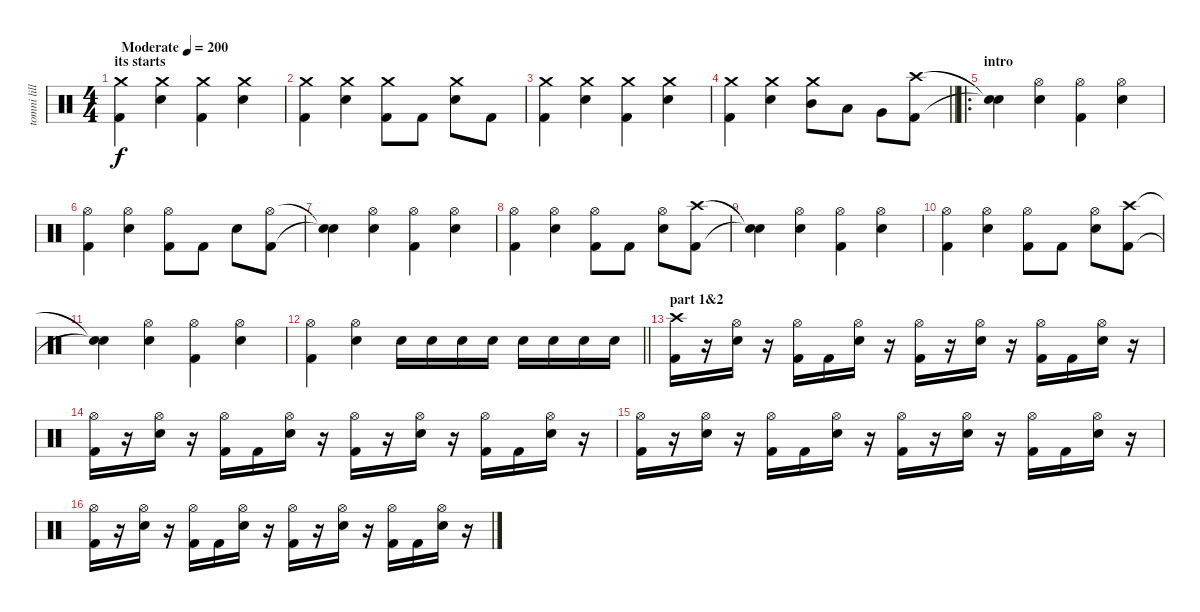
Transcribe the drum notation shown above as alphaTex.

\track ("tomni lillmann" "tomni lill") {instrument percussion}
\staff {score}
\articulation defaults
\ts (4 4)
\section ("" "its starts")
\tempo (200 "Moderate")
\clef neutral
\ks c
("Crash medium (hit)" "Kick (hit) 2").4{dy f} ("Crash medium (hit)" "Snare (hit) 2").4 ("Crash medium (hit)" "Kick (hit) 2").4 ("Crash medium (hit)" "Snare (hit) 2").4 |
("Crash medium (hit)" "Kick (hit) 2").4 ("Crash medium (hit)" "Snare (hit) 2").4 ("Crash medium (hit)" "Kick (hit) 2").8 "Kick (hit) 2".8 ("Crash medium (hit)" "Snare (hit) 2").8 "Kick (hit) 2".8 |
("Crash medium (hit)" "Kick (hit) 2").4 ("Crash medium (hit)" "Snare (hit) 2").4 ("Crash medium (hit)" "Kick (hit) 2").4 ("Crash medium (hit)" "Snare (hit) 2").4 |
\barLineRight lightlight
("Crash medium (hit)" "Kick (hit) 2").4 ("Crash medium (hit)" "Snare (hit) 2").4 ("Crash medium (hit)" "Mid Tom (hit)").8 "Low Tom (hit)".8 "Very Low Tom (hit)".8 ("Crash high (hit)" "Kick (hit) 2").8 |
\ro
\section ("" "intro")
("Snare (hit)"{t} "Snare (hit)"{t}).4 ("Hi-Hat (open)" "Snare (hit) 2").4 ("Hi-Hat (open)" "Kick (hit) 2").4 ("Hi-Hat (open)" "Snare (hit) 2").4 |
("Hi-Hat (open)" "Kick (hit) 2").4 ("Hi-Hat (open)" "Snare (hit) 2").4 ("Hi-Hat (open)" "Kick (hit) 2").8 "Kick (hit) 2".8 "Snare (hit) 2".8 ("Hi-Hat (open)" "Kick (hit) 2").8 |
("Snare (hit)"{t} "Snare (hit)"{t}).4 ("Hi-Hat (open)" "Snare (hit) 2").4 ("Hi-Hat (open)" "Kick (hit) 2").4 ("Hi-Hat (open)" "Snare (hit) 2").4 |
("Hi-Hat (open)" "Kick (hit) 2").4 ("Hi-Hat (open)" "Snare (hit) 2").4 ("Hi-Hat (open)" "Kick (hit) 2").8 "Kick (hit) 2".8 ("Hi-Hat (open)" "Snare (hit) 2").8 ("Crash high (hit)" "Kick (hit) 2").8 |
("Snare (hit)"{t} "Snare (hit)"{t}).4 ("Hi-Hat (open)" "Snare (hit) 2").4 ("Hi-Hat (open)" "Kick (hit) 2").4 ("Hi-Hat (open)" "Snare (hit) 2").4 |
("Hi-Hat (open)" "Kick (hit) 2").4 ("Hi-Hat (open)" "Snare (hit) 2").4 ("Hi-Hat (open)" "Kick (hit) 2").8 "Kick (hit) 2".8 ("Hi-Hat (open)" "Snare (hit) 2").8 ("Crash high (hit)" "Kick (hit) 2").8 |
("Snare (hit)"{t} "Snare (hit)"{t}).4 ("Hi-Hat (open)" "Snare (hit) 2").4 ("Hi-Hat (open)" "Kick (hit) 2").4 ("Hi-Hat (open)" "Snare (hit) 2").4 |
\barLineRight lightlight
("Hi-Hat (open)" "Kick (hit) 2").4 ("Hi-Hat (open)" "Snare (hit) 2").4 "Snare (hit) 2".16 "Snare (hit) 2".16 "Snare (hit) 2".16 "Snare (hit) 2".16 "Snare (hit) 2".16 "Snare (hit) 2".16 "Snare (hit) 2".16 "Snare (hit) 2".16 |
\section ("" "part 1&2")
("Crash high (hit)" "Kick (hit) 2").16 r.16 ("Hi-Hat (open)" "Snare (hit) 2").16 r.16 ("Hi-Hat (open)" "Kick (hit) 2").16 "Kick (hit) 2".16 ("Hi-Hat (open)" "Snare (hit) 2").16 r.16 ("Hi-Hat (open)" "Kick (hit) 2").16 r.16 ("Hi-Hat (open)" "Snare (hit) 2").16 r.16 ("Hi-Hat (open)" "Kick (hit) 2").16 "Kick (hit) 2".16 ("Hi-Hat (open)" "Snare (hit) 2").16 r.16 |
("Hi-Hat (open)" "Kick (hit) 2").16 r.16 ("Hi-Hat (open)" "Snare (hit) 2").16 r.16 ("Hi-Hat (open)" "Kick (hit) 2").16 "Kick (hit) 2".16 ("Hi-Hat (open)" "Snare (hit) 2").16 r.16 ("Hi-Hat (open)" "Kick (hit) 2").16 r.16 ("Hi-Hat (open)" "Snare (hit) 2").16 r.16 ("Hi-Hat (open)" "Kick (hit) 2").16 "Kick (hit) 2".16 ("Hi-Hat (open)" "Snare (hit) 2").16 r.16 |
("Hi-Hat (open)" "Kick (hit) 2").16 r.16 ("Hi-Hat (open)" "Snare (hit) 2").16 r.16 ("Hi-Hat (open)" "Kick (hit) 2").16 "Kick (hit) 2".16 ("Hi-Hat (open)" "Snare (hit) 2").16 r.16 ("Hi-Hat (open)" "Kick (hit) 2").16 r.16 ("Hi-Hat (open)" "Snare (hit) 2").16 r.16 ("Hi-Hat (open)" "Kick (hit) 2").16 "Kick (hit) 2".16 ("Hi-Hat (open)" "Snare (hit) 2").16 r.16 |
("Hi-Hat (open)" "Kick (hit) 2").16 r.16 ("Hi-Hat (open)" "Snare (hit) 2").16 r.16 ("Hi-Hat (open)" "Kick (hit) 2").16 "Kick (hit) 2".16 ("Hi-Hat (open)" "Snare (hit) 2").16 r.16 ("Hi-Hat (open)" "Kick (hit) 2").16 r.16 ("Hi-Hat (open)" "Snare (hit) 2").16 r.16 ("Hi-Hat (open)" "Kick (hit) 2").16 "Kick (hit) 2".16 ("Hi-Hat (open)" "Snare (hit) 2").16 r.16
